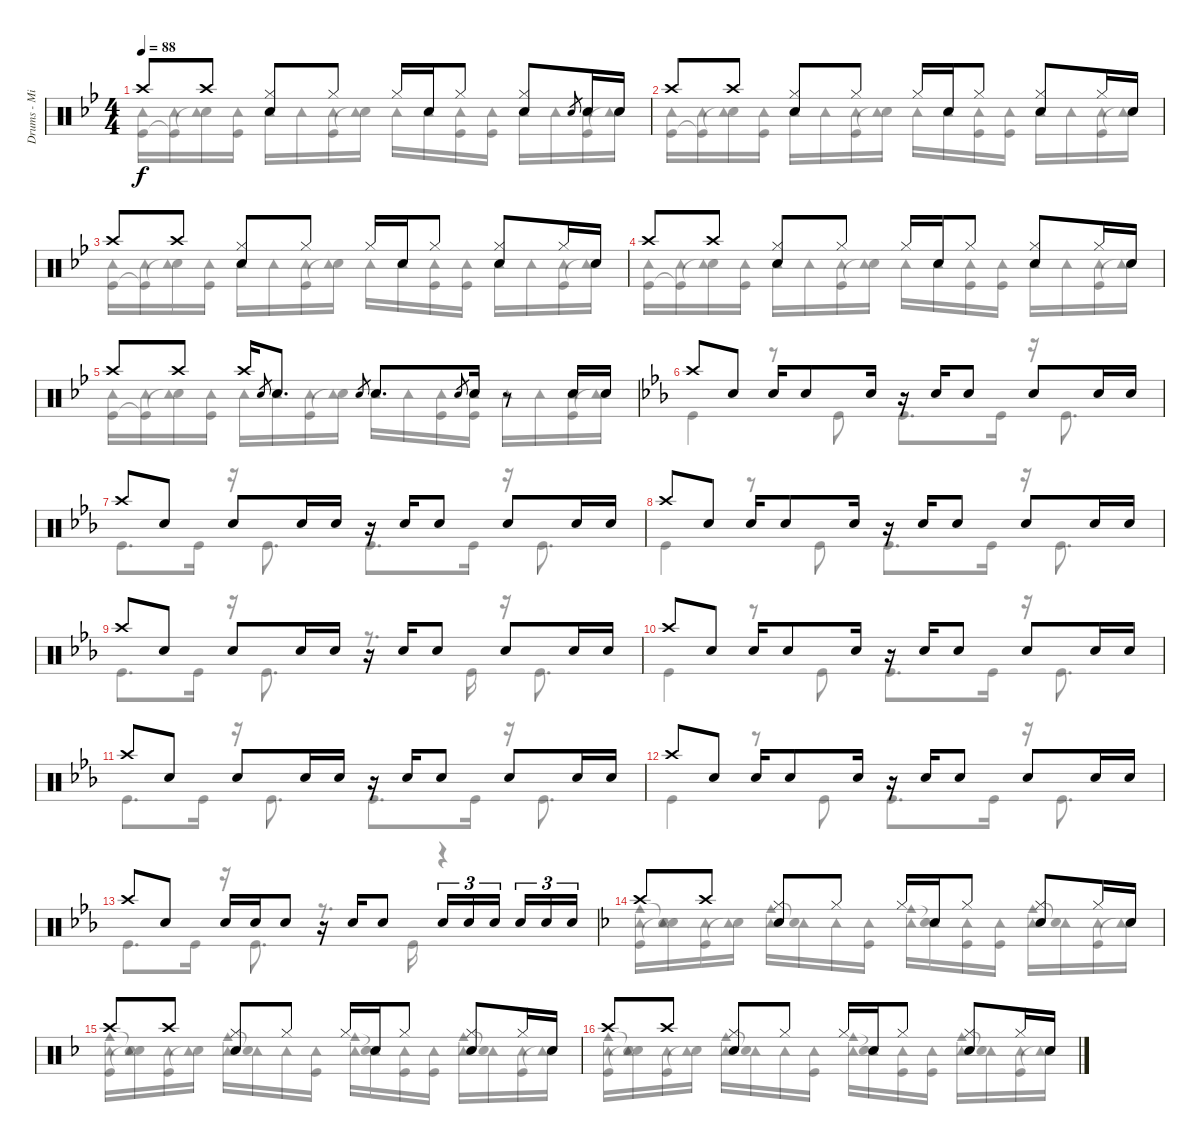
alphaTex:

\track ("Drums - Mike Portnoy" "Drums - Mi") {instrument percussion}
\staff {score}
\articulation defaults
\voice
\ts (4 4)
\tempo 88
\clef neutral
\ks bb "Crash high (hit)".8{dy f} "Crash high (hit)".8
("Hi-Hat (closed)" "Snare (hit) 2").8 "Hi-Hat (closed)".8 "Hi-Hat (closed)".16 "Snare (hit) 2".16 "Hi-Hat (closed)".8 ("Hi-Hat (closed)" "Snare (hit) 2").8 "Snare (hit) 2".8{gr} "Snare (hit) 2".16 "Snare (hit) 2".16 |
"Crash high (hit)".8 "Crash high (hit)".8 ("Hi-Hat (closed)" "Snare (hit) 2").8 "Hi-Hat (closed)".8 "Hi-Hat (closed)".16 "Snare (hit) 2".16 "Hi-Hat (closed)".8 ("Hi-Hat (closed)" "Snare (hit) 2").8 "Hi-Hat (closed)".16 "Snare (hit) 2".16 |
"Crash high (hit)".8 "Crash high (hit)".8 ("Hi-Hat (closed)" "Snare (hit) 2").8 "Hi-Hat (closed)".8 "Hi-Hat (closed)".16 "Snare (hit) 2".16 "Hi-Hat (closed)".8 ("Hi-Hat (closed)" "Snare (hit) 2").8 "Hi-Hat (closed)".16 "Snare (hit) 2".16 |
"Crash high (hit)".8 "Crash high (hit)".8 ("Hi-Hat (closed)" "Snare (hit) 2").8 "Hi-Hat (closed)".8 "Hi-Hat (closed)".16 "Snare (hit) 2".16 "Hi-Hat (closed)".8 ("Hi-Hat (closed)" "Snare (hit) 2").8 "Hi-Hat (closed)".16 "Snare (hit) 2".16 |
"Crash high (hit)".8 "Crash high (hit)".8 "Crash high (hit)".16 "Snare (hit) 2".8{gr} "Snare (hit) 2".8{d} "Snare (hit) 2".8{gr} "Snare (hit) 2".8{d} "Snare (hit) 2".8{gr} "Snare (hit) 2".16 r.8 "Snare (hit) 2".16 "Snare (hit) 2".16 |
\ks eb "Crash high (hit)".8 "Snare (hit) 2".8 "Snare (hit) 2".16 "Snare (hit) 2".8 "Snare (hit) 2".16
r.16 "Snare (hit) 2".16 "Snare (hit) 2".8 "Snare (hit) 2".8 "Snare (hit) 2".16 "Snare (hit) 2".16 |
"Crash high (hit)".8 "Snare (hit) 2".8 "Snare (hit) 2".8 "Snare (hit) 2".16 "Snare (hit) 2".16 r.16 "Snare (hit) 2".16 "Snare (hit) 2".8 "Snare (hit) 2".8 "Snare (hit) 2".16 "Snare (hit) 2".16 |
"Crash high (hit)".8 "Snare (hit) 2".8 "Snare (hit) 2".16 "Snare (hit) 2".8 "Snare (hit) 2".16 r.16 "Snare (hit) 2".16 "Snare (hit) 2".8 "Snare (hit) 2".8 "Snare (hit) 2".16 "Snare (hit) 2".16 |
"Crash high (hit)".8 "Snare (hit) 2".8 "Snare (hit) 2".8 "Snare (hit) 2".16 "Snare (hit) 2".16 r.16 "Snare (hit) 2".16 "Snare (hit) 2".8 "Snare (hit) 2".8 "Snare (hit) 2".16 "Snare (hit) 2".16 |
"Crash high (hit)".8 "Snare (hit) 2".8 "Snare (hit) 2".16 "Snare (hit) 2".8 "Snare (hit) 2".16 r.16 "Snare (hit) 2".16 "Snare (hit) 2".8 "Snare (hit) 2".8 "Snare (hit) 2".16 "Snare (hit) 2".16 |
"Crash high (hit)".8 "Snare (hit) 2".8 "Snare (hit) 2".8 "Snare (hit) 2".16 "Snare (hit) 2".16 r.16 "Snare (hit) 2".16 "Snare (hit) 2".8 "Snare (hit) 2".8 "Snare (hit) 2".16 "Snare (hit) 2".16 |
"Crash high (hit)".8 "Snare (hit) 2".8 "Snare (hit) 2".16 "Snare (hit) 2".8 "Snare (hit) 2".16 r.16 "Snare (hit) 2".16 "Snare (hit) 2".8 "Snare (hit) 2".8 "Snare (hit) 2".16 "Snare (hit) 2".16 |
"Crash high (hit)".8 "Snare (hit) 2".8 "Snare (hit) 2".16 "Snare (hit) 2".16 "Snare (hit) 2".8 r.16 "Snare (hit) 2".16 "Snare (hit) 2".8 "Snare (hit) 2".16{tu (3 2)} "Snare (hit) 2".16{tu (3 2)} "Snare (hit) 2".16{tu (3 2) beam splitsecondary} "Snare (hit) 2".16{tu (3 2)} "Snare (hit) 2".16{tu (3 2)} "Snare (hit) 2".16{tu (3 2)} |
\ks f "Crash high (hit)".8 "Crash high (hit)".8
("Hi-Hat (closed)" "Snare (hit) 2").8 "Hi-Hat (closed)".8 "Hi-Hat (closed)".16 "Snare (hit) 2".16 "Hi-Hat (closed)".8 ("Hi-Hat (closed)" "Snare (hit) 2").8 "Hi-Hat (closed)".16 "Snare (hit) 2".16 |
"Crash high (hit)".8 "Crash high (hit)".8 ("Hi-Hat (closed)" "Snare (hit) 2").8 "Hi-Hat (closed)".8 "Hi-Hat (closed)".16 "Snare (hit) 2".16 "Hi-Hat (closed)".8 ("Hi-Hat (closed)" "Snare (hit) 2").8 "Hi-Hat (closed)".16 "Snare (hit) 2".16 |
"Crash high (hit)".8 "Crash high (hit)".8 ("Hi-Hat (closed)" "Snare (hit) 2").8 "Hi-Hat (closed)".8 "Hi-Hat (closed)".16 "Snare (hit) 2".16 "Hi-Hat (closed)".8 ("Hi-Hat (closed)" "Snare (hit) 2").8 "Hi-Hat (closed)".16 "Snare (hit) 2".16
\voice
\clef neutral
\ottava regular
\simile none
\ks bb
("Kick (hit)" "Tambourine (hit)").16{dy f} ("Kick (hit)"{t} "Tambourine (hit)").16 ("Snare (hit)"{t} "Tambourine (hit)").16 ("Kick (hit)" "Tambourine (hit)").16 "Tambourine (hit)".16 "Tambourine (hit)".16 ("Kick (hit)" "Tambourine (hit)").16 ("Snare (hit)"{t} "Tambourine (hit)").16 "Tambourine (hit)".16 "Tambourine (hit)".16 ("Kick (hit)" "Tambourine (hit)").16 ("Kick (hit)" "Tambourine (hit)").16 "Tambourine (hit)".16 "Tambourine (hit)".16 ("Kick (hit)" "Tambourine (hit)").16 ("Snare (hit)"{t} "Tambourine (hit)").16 |
("Kick (hit)" "Tambourine (hit)").16 ("Kick (hit)"{t} "Tambourine (hit)").16 ("Snare (hit)"{t} "Tambourine (hit)").16 ("Kick (hit)" "Tambourine (hit)").16 "Tambourine (hit)".16 "Tambourine (hit)".16 ("Kick (hit)" "Tambourine (hit)").16 ("Snare (hit)"{t} "Tambourine (hit)").16 "Tambourine (hit)".16 "Tambourine (hit)".16 ("Kick (hit)" "Tambourine (hit)").16 ("Kick (hit)" "Tambourine (hit)").16 "Tambourine (hit)".16 "Tambourine (hit)".16 ("Kick (hit)" "Tambourine (hit)").16 ("Snare (hit)"{t} "Tambourine (hit)").16 |
("Kick (hit)" "Tambourine (hit)").16 ("Kick (hit)"{t} "Tambourine (hit)").16 ("Snare (hit)"{t} "Tambourine (hit)").16 ("Kick (hit)" "Tambourine (hit)").16 "Tambourine (hit)".16 "Tambourine (hit)".16 ("Kick (hit)" "Tambourine (hit)").16 ("Snare (hit)"{t} "Tambourine (hit)").16 "Tambourine (hit)".16 "Tambourine (hit)".16 ("Kick (hit)" "Tambourine (hit)").16 ("Kick (hit)" "Tambourine (hit)").16 "Tambourine (hit)".16 "Tambourine (hit)".16 ("Kick (hit)" "Tambourine (hit)").16 ("Snare (hit)"{t} "Tambourine (hit)").16 |
("Kick (hit)" "Tambourine (hit)").16 ("Kick (hit)"{t} "Tambourine (hit)").16 ("Snare (hit)"{t} "Tambourine (hit)").16 ("Kick (hit)" "Tambourine (hit)").16 "Tambourine (hit)".16 "Tambourine (hit)".16 ("Kick (hit)" "Tambourine (hit)").16 ("Snare (hit)"{t} "Tambourine (hit)").16 "Tambourine (hit)".16 "Tambourine (hit)".16 ("Kick (hit)" "Tambourine (hit)").16 ("Kick (hit)" "Tambourine (hit)").16 "Tambourine (hit)".16 "Tambourine (hit)".16 ("Kick (hit)" "Tambourine (hit)").16 ("Snare (hit)"{t} "Tambourine (hit)").16 |
("Kick (hit)" "Tambourine (hit)").16 ("Kick (hit)"{t} "Tambourine (hit)").16 ("Snare (hit)"{t} "Tambourine (hit)").16 ("Kick (hit)" "Tambourine (hit)").16 "Tambourine (hit)".16 "Tambourine (hit)".16 ("Kick (hit)" "Tambourine (hit)").16 ("Snare (hit)"{t} "Tambourine (hit)").16 "Tambourine (hit)".16 "Tambourine (hit)".16 ("Kick (hit)" "Tambourine (hit)").16 ("Kick (hit)" "Tambourine (hit)").16 "Tambourine (hit)".16 "Tambourine (hit)".16 ("Kick (hit)" "Tambourine (hit)").16 ("Snare (hit)"{t} "Tambourine (hit)").16 |
\ks eb "Kick (hit)".4
r.8 "Kick (hit)".8 "Kick (hit)".8{d} "Kick (hit)".16 r.16 "Kick (hit)".8{d} |
"Kick (hit)".8{d} "Kick (hit)".16 r.16 "Kick (hit)".8{d} "Kick (hit)".8{d} "Kick (hit)".16 r.16 "Kick (hit)".8{d} |
"Kick (hit)".4 r.8 "Kick (hit)".8 "Kick (hit)".8{d} "Kick (hit)".16 r.16 "Kick (hit)".8{d} |
"Kick (hit)".8{d} "Kick (hit)".16 r.16 "Kick (hit)".8{d} r.8{d} "Kick (hit)".16 r.16 "Kick (hit)".8{d} |
"Kick (hit)".4 r.8 "Kick (hit)".8 "Kick (hit)".8{d} "Kick (hit)".16 r.16 "Kick (hit)".8{d} |
"Kick (hit)".8{d} "Kick (hit)".16 r.16 "Kick (hit)".8{d} "Kick (hit)".8{d} "Kick (hit)".16 r.16 "Kick (hit)".8{d} |
"Kick (hit)".4 r.8 "Kick (hit)".8 "Kick (hit)".8{d} "Kick (hit)".16 r.16 "Kick (hit)".8{d} |
"Kick (hit)".8{d} "Kick (hit)".16 r.16 "Kick (hit)".8{d} r.8{d} "Kick (hit)".16 r.4 |
\ks f
("Kick (hit)" "Tambourine (hit)" "Cowbell medium (hit)").16 ("Snare (hit)"{t} "Tambourine (hit)" "Snare (hit)"{t}).16 ("Kick (hit)" "Tambourine (hit)").16 ("Snare (hit)"{t} "Tambourine (hit)").16 ("Tambourine (hit)" "Cowbell medium (hit)").16 ("Tambourine (hit)" "Snare (hit)"{t}).16 "Tambourine (hit)".16 ("Kick (hit)" "Tambourine (hit)").16 ("Tambourine (hit)" "Cowbell medium (hit)").16 ("Tambourine (hit)" "Snare (hit)"{t}).16 ("Kick (hit)" "Tambourine (hit)").16 ("Kick (hit)" "Tambourine (hit)").16 ("Tambourine (hit)" "Cowbell medium (hit)").16 ("Tambourine (hit)" "Snare (hit)"{t}).16 ("Kick (hit)" "Tambourine (hit)").16 ("Snare (hit)"{t} "Tambourine (hit)").16 |
("Kick (hit)" "Tambourine (hit)" "Cowbell medium (hit)").16 ("Snare (hit)"{t} "Tambourine (hit)" "Snare (hit)"{t}).16 ("Kick (hit)" "Tambourine (hit)").16 ("Snare (hit)"{t} "Tambourine (hit)").16 ("Tambourine (hit)" "Cowbell medium (hit)").16 ("Tambourine (hit)" "Snare (hit)"{t}).16 "Tambourine (hit)".16 ("Kick (hit)" "Tambourine (hit)").16 ("Tambourine (hit)" "Cowbell medium (hit)").16 ("Tambourine (hit)" "Snare (hit)"{t}).16 ("Kick (hit)" "Tambourine (hit)").16 ("Kick (hit)" "Tambourine (hit)").16 ("Tambourine (hit)" "Cowbell medium (hit)").16 ("Tambourine (hit)" "Snare (hit)"{t}).16 ("Kick (hit)" "Tambourine (hit)").16 ("Snare (hit)"{t} "Tambourine (hit)").16 |
("Kick (hit)" "Tambourine (hit)" "Cowbell medium (hit)").16 ("Snare (hit)"{t} "Tambourine (hit)" "Snare (hit)"{t}).16 ("Kick (hit)" "Tambourine (hit)").16 ("Snare (hit)"{t} "Tambourine (hit)").16 ("Tambourine (hit)" "Cowbell medium (hit)").16 ("Tambourine (hit)" "Snare (hit)"{t}).16 "Tambourine (hit)".16 ("Kick (hit)" "Tambourine (hit)").16 ("Tambourine (hit)" "Cowbell medium (hit)").16 ("Tambourine (hit)" "Snare (hit)"{t}).16 ("Kick (hit)" "Tambourine (hit)").16 ("Kick (hit)" "Tambourine (hit)").16 ("Tambourine (hit)" "Cowbell medium (hit)").16 ("Tambourine (hit)" "Snare (hit)"{t}).16 ("Kick (hit)" "Tambourine (hit)").16 ("Snare (hit)"{t} "Tambourine (hit)").16
